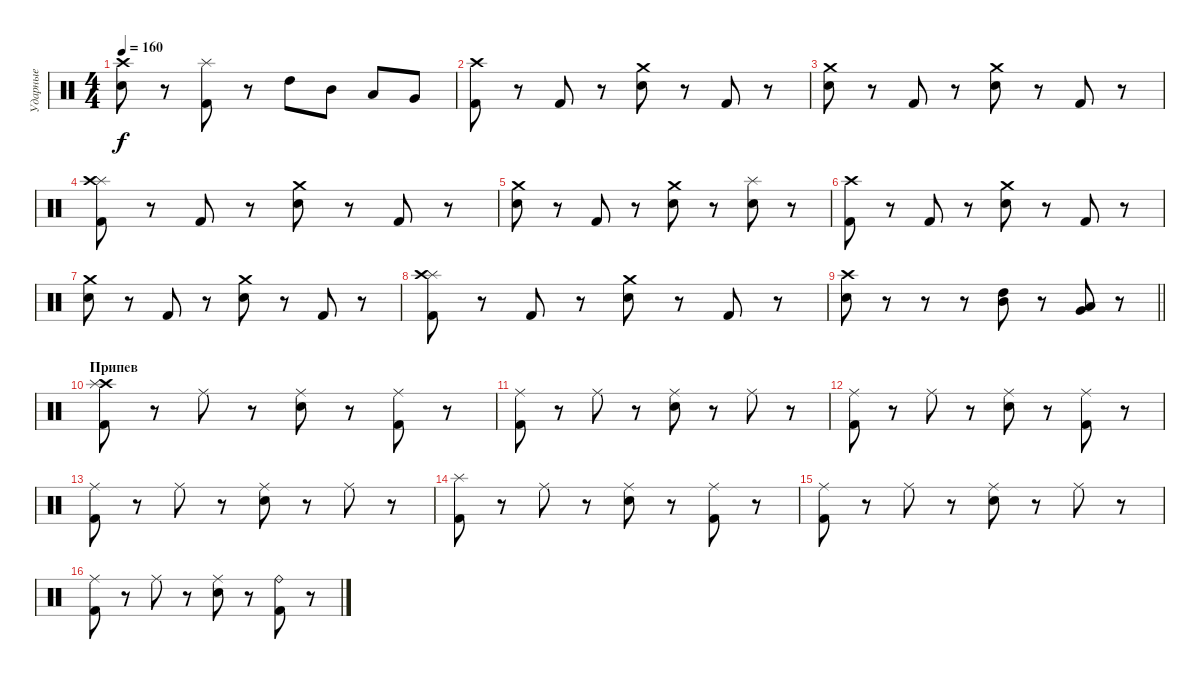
\track ("Ударные" "Ударные") {instrument percussion}
\staff {score}
\articulation defaults
\ts (4 4)
\tempo 160
\clef neutral
\ks c
("Electric Snare (hit)" "Crash high (hit)").8{dy f} r.8 ("Kick (hit) 2" "Splash (hit)").8 r.8 "High Tom (hit)".8 "Mid Tom (hit)".8 "Low Tom (hit)".8 "Very Low Tom (hit)".8 |
("Kick (hit) 2" "Crash high (hit)").8 r.8 "Kick (hit) 2".8 r.8 ("Electric Snare (hit)" "Crash medium (hit)").8 r.8 "Kick (hit) 2".8 r.8 |
("Electric Snare (hit)" "Crash medium (hit)").8 r.8 "Kick (hit) 2".8 r.8 ("Electric Snare (hit)" "Crash medium (hit)").8 r.8 "Kick (hit) 2".8 r.8 |
("Kick (hit) 2" "Splash (hit)" "Crash high (hit)").8 r.8 "Kick (hit) 2".8 r.8 ("Electric Snare (hit)" "Crash medium (hit)").8 r.8 "Kick (hit) 2".8 r.8 |
("Electric Snare (hit)" "Crash medium (hit)").8 r.8 "Kick (hit) 2".8 r.8 ("Electric Snare (hit)" "Crash medium (hit)").8 r.8 ("Electric Snare (hit)" "Splash (hit)").8 r.8 |
("Kick (hit) 2" "Crash high (hit)").8 r.8 "Kick (hit) 2".8 r.8 ("Electric Snare (hit)" "Crash medium (hit)").8 r.8 "Kick (hit) 2".8 r.8 |
("Electric Snare (hit)" "Crash medium (hit)").8 r.8 "Kick (hit) 2".8 r.8 ("Electric Snare (hit)" "Crash medium (hit)").8 r.8 "Kick (hit) 2".8 r.8 |
("Kick (hit) 2" "Splash (hit)" "Crash high (hit)").8 r.8 "Kick (hit) 2".8 r.8 ("Electric Snare (hit)" "Crash medium (hit)").8 r.8 "Kick (hit) 2".8 r.8 |
\barLineRight lightlight
("Electric Snare (hit)" "Crash high (hit)").8 r.8 r.8 r.8 ("Mid Tom (hit)" "High Tom (hit)").8 r.8 ("Very Low Tom (hit)" "Low Tom (hit)").8 r.8 |
\section ("" "Припев")
("Kick (hit) 2" "Crash high (hit)" "Splash (hit)").8 r.8 "Ride (middle)".8 r.8 ("Electric Snare (hit)" "Ride (middle)").8 r.8 ("Kick (hit) 2" "Ride (middle)").8 r.8 |
("Kick (hit) 2" "Ride (middle)").8 r.8 "Ride (middle)".8 r.8 ("Electric Snare (hit)" "Ride (middle)").8 r.8 "Ride (middle)".8 r.8 |
("Kick (hit) 2" "Ride (middle)").8 r.8 "Ride (middle)".8 r.8 ("Electric Snare (hit)" "Ride (middle)").8 r.8 ("Kick (hit) 2" "Ride (middle)").8 r.8 |
("Kick (hit) 2" "Ride (middle)").8 r.8 "Ride (middle)".8 r.8 ("Electric Snare (hit)" "Ride (middle)").8 r.8 "Ride (middle)".8 r.8 |
("Kick (hit) 2" "Splash (hit)").8 r.8 "Ride (middle)".8 r.8 ("Electric Snare (hit)" "Ride (middle)").8 r.8 ("Kick (hit) 2" "Ride (middle)").8 r.8 |
("Kick (hit) 2" "Ride (middle)").8 r.8 "Ride (middle)".8 r.8 ("Electric Snare (hit)" "Ride (middle)").8 r.8 "Ride (middle)".8 r.8 |
("Kick (hit) 2" "Ride (middle)").8 r.8 "Ride (middle)".8 r.8 ("Electric Snare (hit)" "Ride (middle)").8 r.8 ("Kick (hit) 2" "Ride (bell)").8 r.8
